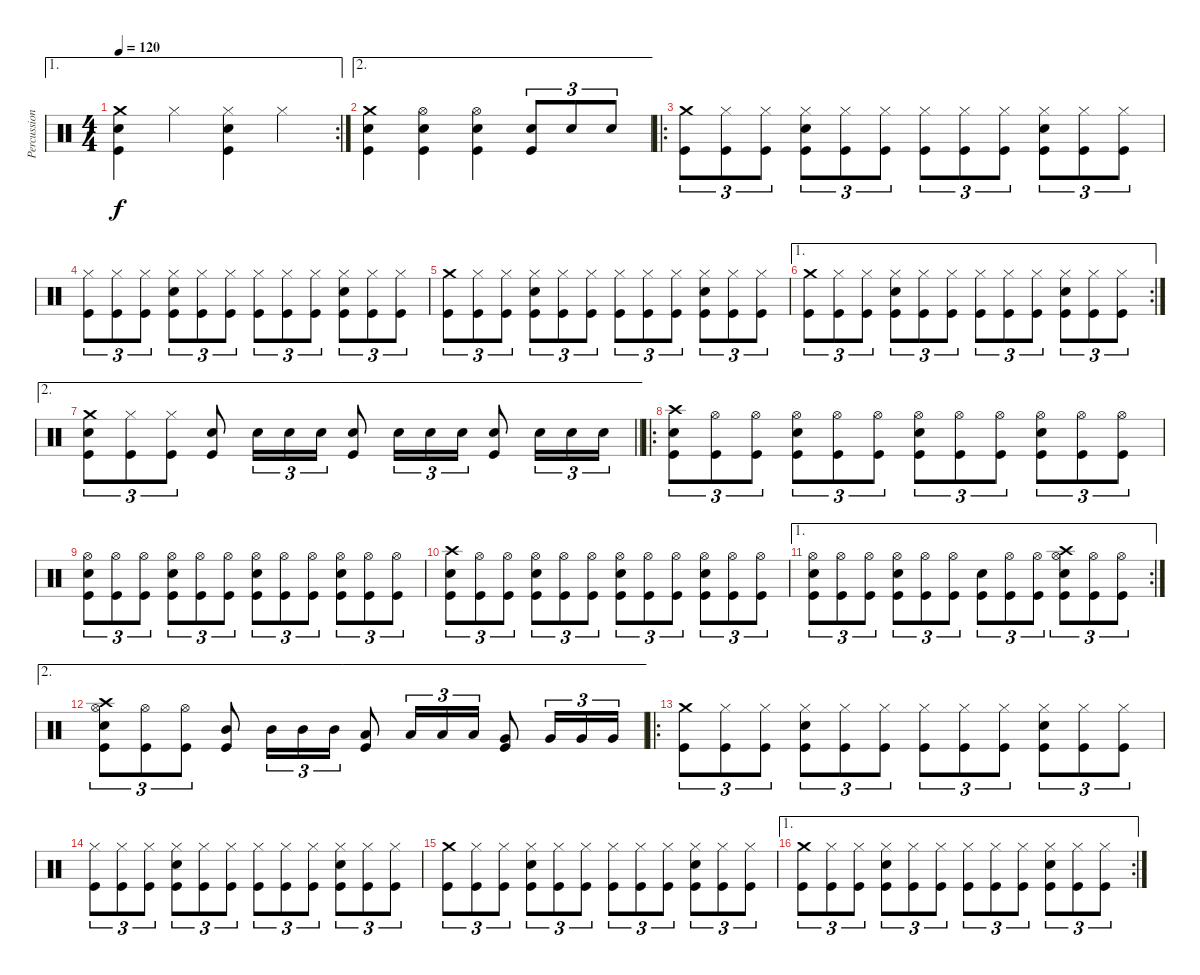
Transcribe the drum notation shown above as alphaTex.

\track ("Percussion" "Percussion") {instrument percussion}
\staff {score}
\articulation defaults
\ae 1
\rc 2
\ts (4 4)
\tempo 120
\clef neutral
\ks c
("Crash medium (hit)" "Snare (hit) 2" "Kick (hit)").4{dy f} "Hi-Hat (closed)".4 ("Hi-Hat (closed)" "Snare (hit) 2" "Kick (hit)").4 "Hi-Hat (closed)".4 |
\ae 2
("Crash medium (hit)" "Snare (hit) 2" "Kick (hit)").4 ("Hi-Hat (open)" "Snare (hit) 2" "Kick (hit)").4 ("Hi-Hat (open)" "Snare (hit) 2" "Kick (hit)").4 ("Snare (hit) 2" "Kick (hit)").8{tu (3 2)} "Snare (hit) 2".8{tu (3 2)} "Snare (hit) 2".8{tu (3 2)} |
\ro
("Crash medium (hit)" "Kick (hit)").8{tu (3 2)} ("Hi-Hat (closed)" "Kick (hit)").8{tu (3 2)} ("Hi-Hat (closed)" "Kick (hit)").8{tu (3 2)} ("Hi-Hat (closed)" "Snare (hit) 2" "Kick (hit)").8{tu (3 2)} ("Hi-Hat (closed)" "Kick (hit)").8{tu (3 2)} ("Hi-Hat (closed)" "Kick (hit)").8{tu (3 2)} ("Hi-Hat (closed)" "Kick (hit)").8{tu (3 2)} ("Hi-Hat (closed)" "Kick (hit)").8{tu (3 2)} ("Hi-Hat (closed)" "Kick (hit)").8{tu (3 2)} ("Hi-Hat (closed)" "Snare (hit) 2" "Kick (hit)").8{tu (3 2)} ("Hi-Hat (closed)" "Kick (hit)").8{tu (3 2)} ("Hi-Hat (closed)" "Kick (hit)").8{tu (3 2)} |
("Hi-Hat (closed)" "Kick (hit)").8{tu (3 2)} ("Hi-Hat (closed)" "Kick (hit)").8{tu (3 2)} ("Hi-Hat (closed)" "Kick (hit)").8{tu (3 2)} ("Hi-Hat (closed)" "Snare (hit) 2" "Kick (hit)").8{tu (3 2)} ("Hi-Hat (closed)" "Kick (hit)").8{tu (3 2)} ("Hi-Hat (closed)" "Kick (hit)").8{tu (3 2)} ("Hi-Hat (closed)" "Kick (hit)").8{tu (3 2)} ("Hi-Hat (closed)" "Kick (hit)").8{tu (3 2)} ("Hi-Hat (closed)" "Kick (hit)").8{tu (3 2)} ("Hi-Hat (closed)" "Snare (hit) 2" "Kick (hit)").8{tu (3 2)} ("Hi-Hat (closed)" "Kick (hit)").8{tu (3 2)} ("Hi-Hat (closed)" "Kick (hit)").8{tu (3 2)} |
("Crash medium (hit)" "Kick (hit)").8{tu (3 2)} ("Hi-Hat (closed)" "Kick (hit)").8{tu (3 2)} ("Hi-Hat (closed)" "Kick (hit)").8{tu (3 2)} ("Hi-Hat (closed)" "Snare (hit) 2" "Kick (hit)").8{tu (3 2)} ("Hi-Hat (closed)" "Kick (hit)").8{tu (3 2)} ("Hi-Hat (closed)" "Kick (hit)").8{tu (3 2)} ("Hi-Hat (closed)" "Kick (hit)").8{tu (3 2)} ("Hi-Hat (closed)" "Kick (hit)").8{tu (3 2)} ("Hi-Hat (closed)" "Kick (hit)").8{tu (3 2)} ("Hi-Hat (closed)" "Snare (hit) 2" "Kick (hit)").8{tu (3 2)} ("Hi-Hat (closed)" "Kick (hit)").8{tu (3 2)} ("Hi-Hat (closed)" "Kick (hit)").8{tu (3 2)} |
\ae 1
\rc 2
("Crash medium (hit)" "Kick (hit)").8{tu (3 2)} ("Hi-Hat (closed)" "Kick (hit)").8{tu (3 2)} ("Hi-Hat (closed)" "Kick (hit)").8{tu (3 2)} ("Hi-Hat (closed)" "Snare (hit) 2" "Kick (hit)").8{tu (3 2)} ("Hi-Hat (closed)" "Kick (hit)").8{tu (3 2)} ("Hi-Hat (closed)" "Kick (hit)").8{tu (3 2)} ("Hi-Hat (closed)" "Kick (hit)").8{tu (3 2)} ("Hi-Hat (closed)" "Kick (hit)").8{tu (3 2)} ("Hi-Hat (closed)" "Kick (hit)").8{tu (3 2)} ("Hi-Hat (closed)" "Snare (hit) 2" "Kick (hit)").8{tu (3 2)} ("Hi-Hat (closed)" "Kick (hit)").8{tu (3 2)} ("Hi-Hat (closed)" "Kick (hit)").8{tu (3 2)} |
\ae 2
\barLineRight lightlight
("Crash medium (hit)" "Snare (hit) 2" "Kick (hit)").8{tu (3 2)} ("Hi-Hat (closed)" "Kick (hit)").8{tu (3 2)} ("Hi-Hat (closed)" "Kick (hit)").8{tu (3 2)} ("Snare (hit) 2" "Kick (hit)").8 "Snare (hit) 2".16{tu (3 2)} "Snare (hit) 2".16{tu (3 2)} "Snare (hit) 2".16{tu (3 2)} ("Snare (hit) 2" "Kick (hit)").8 "Snare (hit) 2".16{tu (3 2)} "Snare (hit) 2".16{tu (3 2)} "Snare (hit) 2".16{tu (3 2)} ("Snare (hit) 2" "Kick (hit)").8 "Snare (hit) 2".16{tu (3 2)} "Snare (hit) 2".16{tu (3 2)} "Snare (hit) 2".16{tu (3 2)} |
\ro
("Crash high (hit)" "Snare (hit) 2" "Kick (hit)").8{tu (3 2)} ("Hi-Hat (open)" "Kick (hit)").8{tu (3 2)} ("Hi-Hat (open)" "Kick (hit)").8{tu (3 2)} ("Hi-Hat (open)" "Snare (hit) 2" "Kick (hit)").8{tu (3 2)} ("Hi-Hat (open)" "Kick (hit)").8{tu (3 2)} ("Hi-Hat (open)" "Kick (hit)").8{tu (3 2)} ("Hi-Hat (open)" "Snare (hit) 2" "Kick (hit)").8{tu (3 2)} ("Hi-Hat (open)" "Kick (hit)").8{tu (3 2)} ("Hi-Hat (open)" "Kick (hit)").8{tu (3 2)} ("Hi-Hat (open)" "Snare (hit) 2" "Kick (hit)").8{tu (3 2)} ("Hi-Hat (open)" "Kick (hit)").8{tu (3 2)} ("Hi-Hat (open)" "Kick (hit)").8{tu (3 2)} |
("Hi-Hat (open)" "Snare (hit) 2" "Kick (hit)").8{tu (3 2)} ("Hi-Hat (open)" "Kick (hit)").8{tu (3 2)} ("Hi-Hat (open)" "Kick (hit)").8{tu (3 2)} ("Hi-Hat (open)" "Snare (hit) 2" "Kick (hit)").8{tu (3 2)} ("Hi-Hat (open)" "Kick (hit)").8{tu (3 2)} ("Hi-Hat (open)" "Kick (hit)").8{tu (3 2)} ("Hi-Hat (open)" "Snare (hit) 2" "Kick (hit)").8{tu (3 2)} ("Hi-Hat (open)" "Kick (hit)").8{tu (3 2)} ("Hi-Hat (open)" "Kick (hit)").8{tu (3 2)} ("Hi-Hat (open)" "Snare (hit) 2" "Kick (hit)").8{tu (3 2)} ("Hi-Hat (open)" "Kick (hit)").8{tu (3 2)} ("Hi-Hat (open)" "Kick (hit)").8{tu (3 2)} |
("Crash high (hit)" "Snare (hit) 2" "Kick (hit)").8{tu (3 2)} ("Hi-Hat (open)" "Kick (hit)").8{tu (3 2)} ("Hi-Hat (open)" "Kick (hit)").8{tu (3 2)} ("Hi-Hat (open)" "Snare (hit) 2" "Kick (hit)").8{tu (3 2)} ("Hi-Hat (open)" "Kick (hit)").8{tu (3 2)} ("Hi-Hat (open)" "Kick (hit)").8{tu (3 2)} ("Hi-Hat (open)" "Snare (hit) 2" "Kick (hit)").8{tu (3 2)} ("Hi-Hat (open)" "Kick (hit)").8{tu (3 2)} ("Hi-Hat (open)" "Kick (hit)").8{tu (3 2)} ("Hi-Hat (open)" "Snare (hit) 2" "Kick (hit)").8{tu (3 2)} ("Hi-Hat (open)" "Kick (hit)").8{tu (3 2)} ("Hi-Hat (open)" "Kick (hit)").8{tu (3 2)} |
\ae 1
\rc 2
("Hi-Hat (open)" "Snare (hit) 2" "Kick (hit)").8{tu (3 2)} ("Hi-Hat (open)" "Kick (hit)").8{tu (3 2)} ("Hi-Hat (open)" "Kick (hit)").8{tu (3 2)} ("Hi-Hat (open)" "Snare (hit) 2" "Kick (hit)").8{tu (3 2)} ("Hi-Hat (open)" "Kick (hit)").8{tu (3 2)} ("Hi-Hat (open)" "Kick (hit)").8{tu (3 2)} ("Snare (hit) 2" "Kick (hit)").8{tu (3 2)} ("Hi-Hat (open)" "Kick (hit)").8{tu (3 2)} ("Hi-Hat (open)" "Kick (hit)").8{tu (3 2)} ("Crash high (hit)" "Hi-Hat (open)" "Snare (hit) 2" "Kick (hit)").8{tu (3 2)} ("Hi-Hat (open)" "Kick (hit)").8{tu (3 2)} ("Hi-Hat (open)" "Kick (hit)").8{tu (3 2)} |
\ae 2
("Crash high (hit)" "Hi-Hat (open)" "Snare (hit) 2" "Kick (hit)").8{tu (3 2)} ("Hi-Hat (open)" "Kick (hit)").8{tu (3 2)} ("Hi-Hat (open)" "Kick (hit)").8{tu (3 2)} ("Mid Tom (hit)" "Kick (hit)").8 "Mid Tom (hit)".16{tu (3 2)} "Mid Tom (hit)".16{tu (3 2)} "Mid Tom (hit)".16{tu (3 2)} ("Low Tom (hit)" "Kick (hit)").8 "Low Tom (hit)".16{tu (3 2)} "Low Tom (hit)".16{tu (3 2)} "Low Tom (hit)".16{tu (3 2)} ("Very Low Tom (hit)" "Kick (hit)").8 "Very Low Tom (hit)".16{tu (3 2)} "Very Low Tom (hit)".16{tu (3 2)} "Very Low Tom (hit)".16{tu (3 2)} |
\ro
("Crash medium (hit)" "Kick (hit)").8{tu (3 2)} ("Hi-Hat (closed)" "Kick (hit)").8{tu (3 2)} ("Hi-Hat (closed)" "Kick (hit)").8{tu (3 2)} ("Hi-Hat (closed)" "Snare (hit) 2" "Kick (hit)").8{tu (3 2)} ("Hi-Hat (closed)" "Kick (hit)").8{tu (3 2)} ("Hi-Hat (closed)" "Kick (hit)").8{tu (3 2)} ("Hi-Hat (closed)" "Kick (hit)").8{tu (3 2)} ("Hi-Hat (closed)" "Kick (hit)").8{tu (3 2)} ("Hi-Hat (closed)" "Kick (hit)").8{tu (3 2)} ("Hi-Hat (closed)" "Snare (hit) 2" "Kick (hit)").8{tu (3 2)} ("Hi-Hat (closed)" "Kick (hit)").8{tu (3 2)} ("Hi-Hat (closed)" "Kick (hit)").8{tu (3 2)} |
("Hi-Hat (closed)" "Kick (hit)").8{tu (3 2)} ("Hi-Hat (closed)" "Kick (hit)").8{tu (3 2)} ("Hi-Hat (closed)" "Kick (hit)").8{tu (3 2)} ("Hi-Hat (closed)" "Snare (hit) 2" "Kick (hit)").8{tu (3 2)} ("Hi-Hat (closed)" "Kick (hit)").8{tu (3 2)} ("Hi-Hat (closed)" "Kick (hit)").8{tu (3 2)} ("Hi-Hat (closed)" "Kick (hit)").8{tu (3 2)} ("Hi-Hat (closed)" "Kick (hit)").8{tu (3 2)} ("Hi-Hat (closed)" "Kick (hit)").8{tu (3 2)} ("Hi-Hat (closed)" "Snare (hit) 2" "Kick (hit)").8{tu (3 2)} ("Hi-Hat (closed)" "Kick (hit)").8{tu (3 2)} ("Hi-Hat (closed)" "Kick (hit)").8{tu (3 2)} |
("Crash medium (hit)" "Kick (hit)").8{tu (3 2)} ("Hi-Hat (closed)" "Kick (hit)").8{tu (3 2)} ("Hi-Hat (closed)" "Kick (hit)").8{tu (3 2)} ("Hi-Hat (closed)" "Snare (hit) 2" "Kick (hit)").8{tu (3 2)} ("Hi-Hat (closed)" "Kick (hit)").8{tu (3 2)} ("Hi-Hat (closed)" "Kick (hit)").8{tu (3 2)} ("Hi-Hat (closed)" "Kick (hit)").8{tu (3 2)} ("Hi-Hat (closed)" "Kick (hit)").8{tu (3 2)} ("Hi-Hat (closed)" "Kick (hit)").8{tu (3 2)} ("Hi-Hat (closed)" "Snare (hit) 2" "Kick (hit)").8{tu (3 2)} ("Hi-Hat (closed)" "Kick (hit)").8{tu (3 2)} ("Hi-Hat (closed)" "Kick (hit)").8{tu (3 2)} |
\ae 1
\rc 2
("Crash medium (hit)" "Kick (hit)").8{tu (3 2)} ("Hi-Hat (closed)" "Kick (hit)").8{tu (3 2)} ("Hi-Hat (closed)" "Kick (hit)").8{tu (3 2)} ("Hi-Hat (closed)" "Snare (hit) 2" "Kick (hit)").8{tu (3 2)} ("Hi-Hat (closed)" "Kick (hit)").8{tu (3 2)} ("Hi-Hat (closed)" "Kick (hit)").8{tu (3 2)} ("Hi-Hat (closed)" "Kick (hit)").8{tu (3 2)} ("Hi-Hat (closed)" "Kick (hit)").8{tu (3 2)} ("Hi-Hat (closed)" "Kick (hit)").8{tu (3 2)} ("Hi-Hat (closed)" "Snare (hit) 2" "Kick (hit)").8{tu (3 2)} ("Hi-Hat (closed)" "Kick (hit)").8{tu (3 2)} ("Hi-Hat (closed)" "Kick (hit)").8{tu (3 2)}
